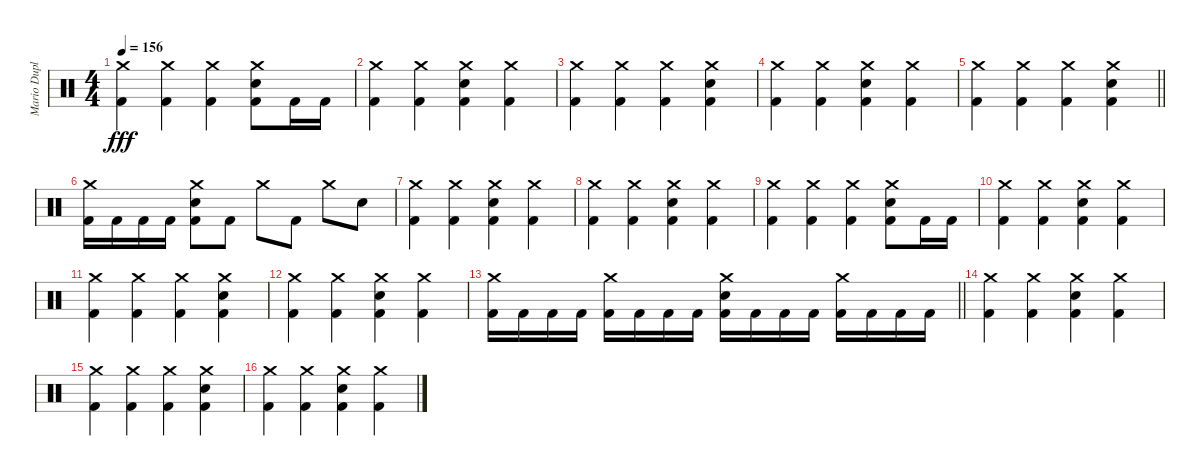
\track ("Mario Duplantier" "Mario Dupl") {instrument percussion}
\staff {score}
\articulation defaults
\ts (4 4)
\tempo 156
\clef neutral
\ks c
("Crash medium (hit)" "Kick (hit) 2").4{dy fff} ("Crash medium (hit)" "Kick (hit) 2").4 ("Crash medium (hit)" "Kick (hit) 2").4 ("Crash medium (hit)" "Electric Snare (hit)" "Kick (hit) 2").8 "Kick (hit) 2".16 "Kick (hit) 2".16 |
("Crash medium (hit)" "Kick (hit) 2").4 ("Crash medium (hit)" "Kick (hit) 2").4 ("Crash medium (hit)" "Electric Snare (hit)" "Kick (hit) 2").4 ("Crash medium (hit)" "Kick (hit) 2").4 |
("Crash medium (hit)" "Kick (hit) 2").4 ("Crash medium (hit)" "Kick (hit) 2").4 ("Crash medium (hit)" "Kick (hit) 2").4 ("Crash medium (hit)" "Electric Snare (hit)" "Kick (hit) 2").4 |
("Crash medium (hit)" "Kick (hit) 2").4 ("Crash medium (hit)" "Kick (hit) 2").4 ("Crash medium (hit)" "Electric Snare (hit)" "Kick (hit) 2").4 ("Crash medium (hit)" "Kick (hit) 2").4 |
\barLineRight lightlight
("Crash medium (hit)" "Kick (hit) 2").4 ("Crash medium (hit)" "Kick (hit) 2").4 ("Crash medium (hit)" "Kick (hit) 2").4 ("Crash medium (hit)" "Electric Snare (hit)" "Kick (hit) 2").4 |
\section ("" "")
("Crash medium (hit)" "Kick (hit) 2").16 "Kick (hit) 2".16 "Kick (hit) 2".16 "Kick (hit) 2".16 ("Crash medium (hit)" "Electric Snare (hit)" "Kick (hit) 2").8 "Kick (hit) 2".8 "Crash medium (hit)".8 "Kick (hit) 2".8 "Crash medium (hit)".8 "Electric Snare (hit)".8 |
("Crash medium (hit)" "Kick (hit) 2").4 ("Crash medium (hit)" "Kick (hit) 2").4 ("Crash medium (hit)" "Electric Snare (hit)" "Kick (hit) 2").4 ("Crash medium (hit)" "Kick (hit) 2").4 |
("Crash medium (hit)" "Kick (hit) 2").4 ("Crash medium (hit)" "Kick (hit) 2").4 ("Crash medium (hit)" "Electric Snare (hit)" "Kick (hit) 2").4 ("Crash medium (hit)" "Kick (hit) 2").4 |
("Crash medium (hit)" "Kick (hit) 2").4 ("Crash medium (hit)" "Kick (hit) 2").4 ("Crash medium (hit)" "Kick (hit) 2").4 ("Crash medium (hit)" "Electric Snare (hit)" "Kick (hit) 2").8 "Kick (hit) 2".16 "Kick (hit) 2".16 |
("Crash medium (hit)" "Kick (hit) 2").4 ("Crash medium (hit)" "Kick (hit) 2").4 ("Crash medium (hit)" "Electric Snare (hit)" "Kick (hit) 2").4 ("Crash medium (hit)" "Kick (hit) 2").4 |
("Crash medium (hit)" "Kick (hit) 2").4 ("Crash medium (hit)" "Kick (hit) 2").4 ("Crash medium (hit)" "Kick (hit) 2").4 ("Crash medium (hit)" "Electric Snare (hit)" "Kick (hit) 2").4 |
("Crash medium (hit)" "Kick (hit) 2").4 ("Crash medium (hit)" "Kick (hit) 2").4 ("Crash medium (hit)" "Electric Snare (hit)" "Kick (hit) 2").4 ("Crash medium (hit)" "Kick (hit) 2").4 |
\barLineRight lightlight
("Crash medium (hit)" "Kick (hit) 2").16 "Kick (hit) 2".16 "Kick (hit) 2".16 "Kick (hit) 2".16 ("Crash medium (hit)" "Kick (hit) 2").16 "Kick (hit) 2".16 "Kick (hit) 2".16 "Kick (hit) 2".16 ("Crash medium (hit)" "Electric Snare (hit)" "Kick (hit) 2").16 "Kick (hit) 2".16 "Kick (hit) 2".16 "Kick (hit) 2".16 ("Crash medium (hit)" "Kick (hit) 2").16 "Kick (hit) 2".16 "Kick (hit) 2".16 "Kick (hit) 2".16 |
("Crash medium (hit)" "Kick (hit) 2").4 ("Crash medium (hit)" "Kick (hit) 2").4 ("Crash medium (hit)" "Electric Snare (hit)" "Kick (hit) 2").4 ("Crash medium (hit)" "Kick (hit) 2").4 |
("Crash medium (hit)" "Kick (hit) 2").4 ("Crash medium (hit)" "Kick (hit) 2").4 ("Crash medium (hit)" "Kick (hit) 2").4 ("Crash medium (hit)" "Electric Snare (hit)" "Kick (hit) 2").4 |
("Crash medium (hit)" "Kick (hit) 2").4 ("Crash medium (hit)" "Kick (hit) 2").4 ("Crash medium (hit)" "Electric Snare (hit)" "Kick (hit) 2").4 ("Crash medium (hit)" "Kick (hit) 2").4
